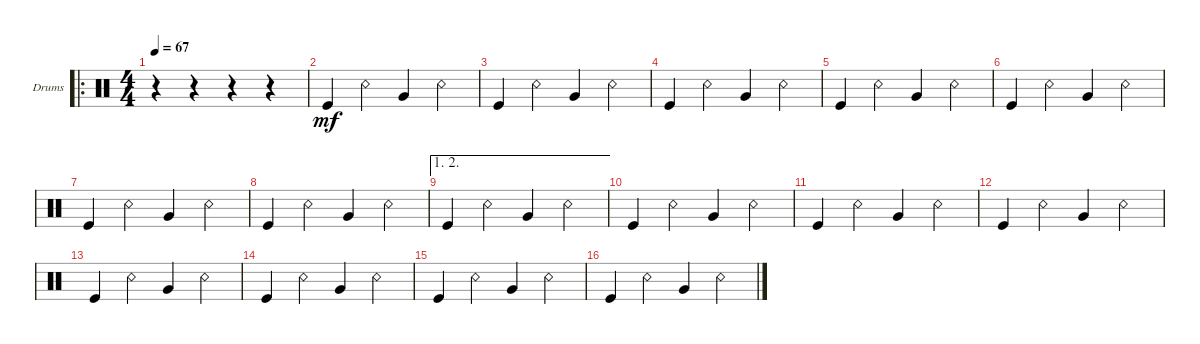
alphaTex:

\defaultSystemsLayout 4
\bracketExtendMode groupsimilarinstruments
\firstSystemTrackNameOrientation horizontal
\otherSystemsTrackNameOrientation horizontal
\track ("Drumkit" "Drums") {instrument percussion}
\staff {score}
\articulation defaults
\ro
\ts (4 4)
\tempo 67
\clef neutral
\ks c
r.4{dy mf} r.4 r.4 r.4 |
"Kick (hit)".4 "Snare (rim shot)".4 "Very Low Tom (hit)".4 "Snare (rim shot)".4 |
"Kick (hit)".4 "Snare (rim shot)".4 "Very Low Tom (hit)".4 "Snare (rim shot)".4 |
"Kick (hit)".4 "Snare (rim shot)".4 "Very Low Tom (hit)".4 "Snare (rim shot)".4 |
"Kick (hit)".4 "Snare (rim shot)".4 "Very Low Tom (hit)".4 "Snare (rim shot)".4 |
"Kick (hit)".4 "Snare (rim shot)".4 "Very Low Tom (hit)".4 "Snare (rim shot)".4 |
"Kick (hit)".4 "Snare (rim shot)".4 "Very Low Tom (hit)".4 "Snare (rim shot)".4 |
"Kick (hit)".4 "Snare (rim shot)".4 "Very Low Tom (hit)".4 "Snare (rim shot)".4 |
\ae (1 2)
"Kick (hit)".4 "Snare (rim shot)".4 "Very Low Tom (hit)".4 "Snare (rim shot)".4 |
"Kick (hit)".4 "Snare (rim shot)".4 "Very Low Tom (hit)".4 "Snare (rim shot)".4 |
"Kick (hit)".4 "Snare (rim shot)".4 "Very Low Tom (hit)".4 "Snare (rim shot)".4 |
"Kick (hit)".4 "Snare (rim shot)".4 "Very Low Tom (hit)".4 "Snare (rim shot)".4 |
"Kick (hit)".4 "Snare (rim shot)".4 "Very Low Tom (hit)".4 "Snare (rim shot)".4 |
"Kick (hit)".4 "Snare (rim shot)".4 "Very Low Tom (hit)".4 "Snare (rim shot)".4 |
"Kick (hit)".4 "Snare (rim shot)".4 "Very Low Tom (hit)".4 "Snare (rim shot)".4 |
"Kick (hit)".4 "Snare (rim shot)".4 "Very Low Tom (hit)".4 "Snare (rim shot)".4
